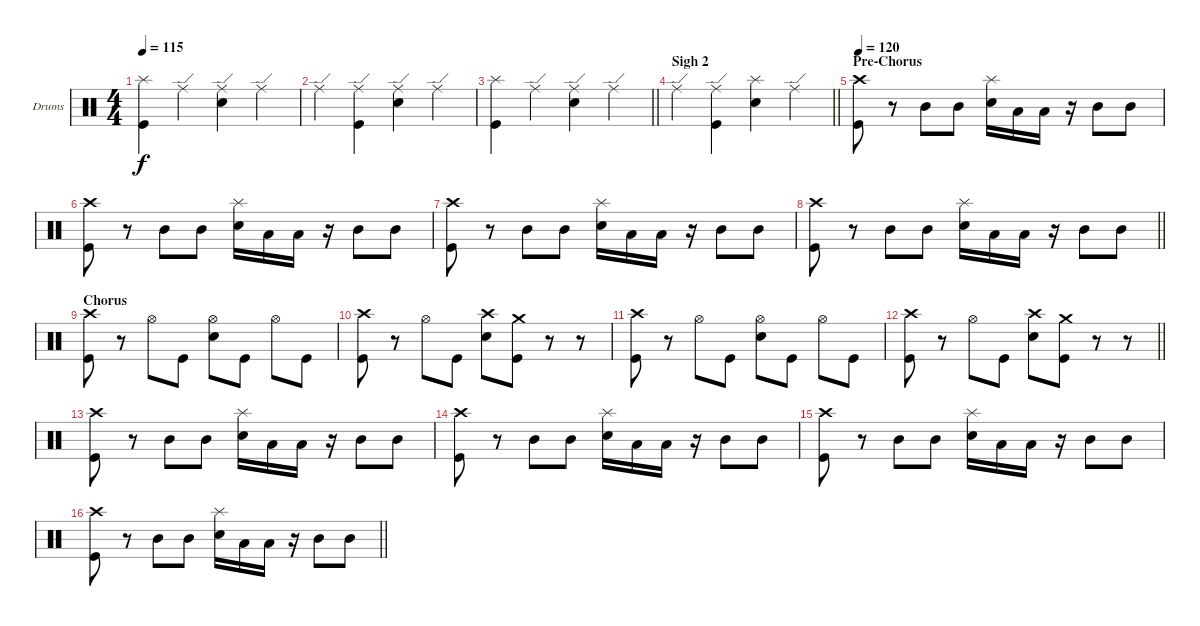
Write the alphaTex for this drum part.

\bracketExtendMode groupsimilarinstruments
\firstSystemTrackNameOrientation horizontal
\otherSystemsTrackNameOrientation horizontal
\track ("Drumkit" "Drums") {instrument percussion}
\staff {score}
\articulation defaults
\ts (4 4)
\tempo 115
\clef neutral
\ks c
("Splash (hit)" "Kick (hit)").4{dy f} "Ride (edge)".4 ("Ride (edge)" "Snare (hit) 2").4 "Ride (edge)".4 |
"Ride (edge)".4 ("Ride (edge)" "Kick (hit)").4 ("Ride (edge)" "Snare (hit) 2").4 "Ride (edge)".4 |
\barLineRight lightlight
("Splash (hit)" "Kick (hit)").4 "Ride (edge)".4 ("Ride (edge)" "Snare (hit) 2").4 "Ride (edge)".4 |
\section ("" "Sigh 2")
\barLineRight lightlight "Ride (edge)".4
("Ride (edge)" "Kick (hit)").4 ("Splash (hit)" "Snare (hit) 2").4 "Ride (edge)".4 |
\section ("" "Pre-Chorus")
\tempo 120
("Crash high (hit)" "Kick (hit)").8 r.8 "Mid Tom (hit)".8 "Mid Tom (hit)".8 ("Splash (hit)" "Snare (hit) 2").16 "Low Tom (hit)".16 "Low Tom (hit)".16 r.16 "Mid Tom (hit)".8 "Mid Tom (hit)".8 |
("Crash high (hit)" "Kick (hit)").8 r.8 "Mid Tom (hit)".8 "Mid Tom (hit)".8 ("Splash (hit)" "Snare (hit) 2").16 "Low Tom (hit)".16 "Low Tom (hit)".16 r.16 "Mid Tom (hit)".8 "Mid Tom (hit)".8 |
("Crash high (hit)" "Kick (hit)").8 r.8 "Mid Tom (hit)".8 "Mid Tom (hit)".8 ("Splash (hit)" "Snare (hit) 2").16 "Low Tom (hit)".16 "Low Tom (hit)".16 r.16 "Mid Tom (hit)".8 "Mid Tom (hit)".8 |
\barLineRight lightlight
("Crash high (hit)" "Kick (hit)").8 r.8 "Mid Tom (hit)".8 "Mid Tom (hit)".8 ("Splash (hit)" "Snare (hit) 2").16 "Low Tom (hit)".16 "Low Tom (hit)".16 r.16 "Mid Tom (hit)".8 "Mid Tom (hit)".8 |
\section ("" "Chorus")
("Crash high (hit)" "Kick (hit)").8 r.8 "Hi-Hat (open)".8 "Kick (hit)".8 ("Hi-Hat (open)" "Snare (hit) 2").8 "Kick (hit)".8 "Hi-Hat (open)".8 "Kick (hit)".8 |
("Crash high (hit)" "Kick (hit)").8 r.8 "Hi-Hat (open)".8 "Kick (hit)".8 ("Crash high (hit)" "Snare (hit) 2").8 ("Crash medium (hit)" "Kick (hit)").8 r.8 r.8 |
("Crash high (hit)" "Kick (hit)").8 r.8 "Hi-Hat (open)".8 "Kick (hit)".8 ("Hi-Hat (open)" "Snare (hit) 2").8 "Kick (hit)".8 "Hi-Hat (open)".8 "Kick (hit)".8 |
\barLineRight lightlight
("Crash high (hit)" "Kick (hit)").8 r.8 "Hi-Hat (open)".8 "Kick (hit)".8 ("Crash high (hit)" "Snare (hit) 2").8 ("Crash medium (hit)" "Kick (hit)").8 r.8 r.8 |
("Crash high (hit)" "Kick (hit)").8 r.8 "Mid Tom (hit)".8 "Mid Tom (hit)".8 ("Splash (hit)" "Snare (hit) 2").16 "Low Tom (hit)".16 "Low Tom (hit)".16 r.16 "Mid Tom (hit)".8 "Mid Tom (hit)".8 |
("Crash high (hit)" "Kick (hit)").8 r.8 "Mid Tom (hit)".8 "Mid Tom (hit)".8 ("Splash (hit)" "Snare (hit) 2").16 "Low Tom (hit)".16 "Low Tom (hit)".16 r.16 "Mid Tom (hit)".8 "Mid Tom (hit)".8 |
("Crash high (hit)" "Kick (hit)").8 r.8 "Mid Tom (hit)".8 "Mid Tom (hit)".8 ("Splash (hit)" "Snare (hit) 2").16 "Low Tom (hit)".16 "Low Tom (hit)".16 r.16 "Mid Tom (hit)".8 "Mid Tom (hit)".8 |
\barLineRight lightlight
("Crash high (hit)" "Kick (hit)").8 r.8 "Mid Tom (hit)".8 "Mid Tom (hit)".8 ("Splash (hit)" "Snare (hit) 2").16 "Low Tom (hit)".16 "Low Tom (hit)".16 r.16 "Mid Tom (hit)".8 "Mid Tom (hit)".8
